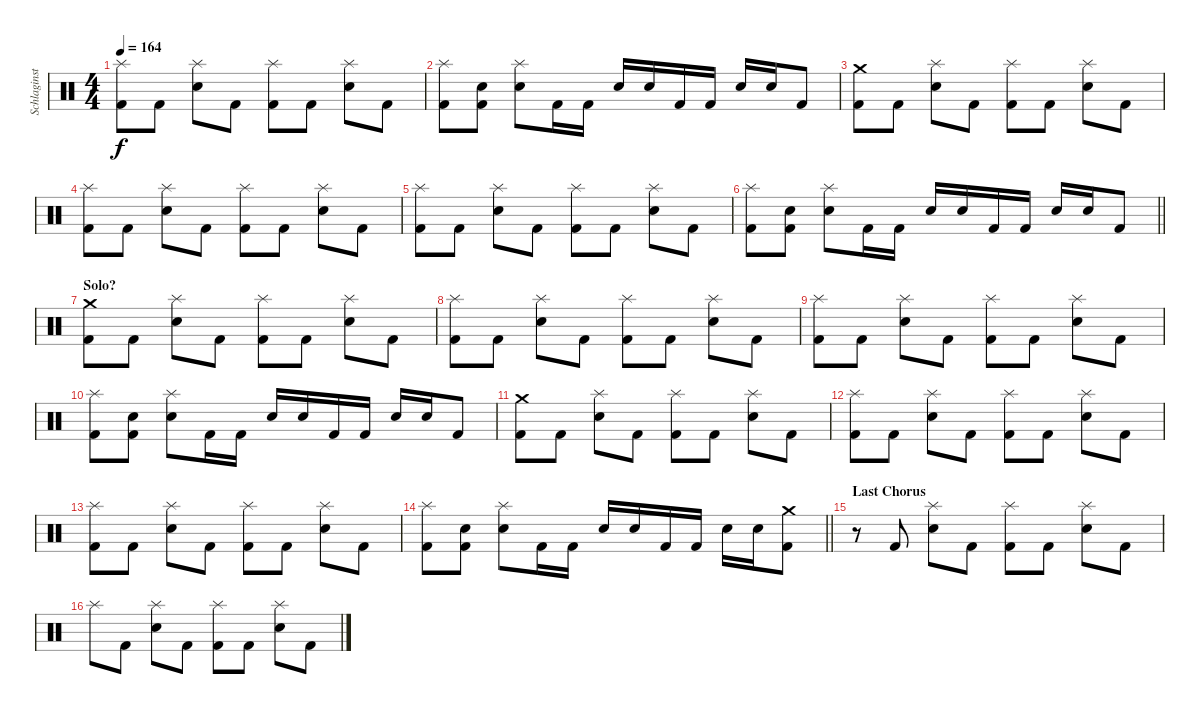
\track ("Schlaginstrumente - Auswahl" "Schlaginst") {instrument percussion}
\staff {score}
\articulation defaults
\ts (4 4)
\tempo 164
\clef neutral
\ks c
("Splash (hit)" "Kick (hit) 2").8{dy f} "Kick (hit) 2".8 ("Splash (hit)" "Electric Snare (hit)").8 "Kick (hit) 2".8 ("Splash (hit)" "Kick (hit) 2").8 "Kick (hit) 2".8 ("Splash (hit)" "Electric Snare (hit)").8 "Kick (hit) 2".8 |
("Splash (hit)" "Kick (hit) 2").8 ("Electric Snare (hit)" "Kick (hit) 2").8 ("Splash (hit)" "Electric Snare (hit)").8 "Kick (hit) 2".16 "Kick (hit) 2".16 "Electric Snare (hit)".16 "Electric Snare (hit)".16 "Kick (hit) 2".16 "Kick (hit) 2".16 "Electric Snare (hit)".16 "Electric Snare (hit)".16 "Kick (hit) 2".8 |
("Crash medium (hit)" "Kick (hit) 2").8 "Kick (hit) 2".8 ("Splash (hit)" "Electric Snare (hit)").8 "Kick (hit) 2".8 ("Splash (hit)" "Kick (hit) 2").8 "Kick (hit) 2".8 ("Splash (hit)" "Electric Snare (hit)").8 "Kick (hit) 2".8 |
("Splash (hit)" "Kick (hit) 2").8 "Kick (hit) 2".8 ("Splash (hit)" "Electric Snare (hit)").8 "Kick (hit) 2".8 ("Splash (hit)" "Kick (hit) 2").8 "Kick (hit) 2".8 ("Splash (hit)" "Electric Snare (hit)").8 "Kick (hit) 2".8 |
("Splash (hit)" "Kick (hit) 2").8 "Kick (hit) 2".8 ("Splash (hit)" "Electric Snare (hit)").8 "Kick (hit) 2".8 ("Splash (hit)" "Kick (hit) 2").8 "Kick (hit) 2".8 ("Splash (hit)" "Electric Snare (hit)").8 "Kick (hit) 2".8 |
\barLineRight lightlight
("Splash (hit)" "Kick (hit) 2").8 ("Electric Snare (hit)" "Kick (hit) 2").8 ("Splash (hit)" "Electric Snare (hit)").8 "Kick (hit) 2".16 "Kick (hit) 2".16 "Electric Snare (hit)".16 "Electric Snare (hit)".16 "Kick (hit) 2".16 "Kick (hit) 2".16 "Electric Snare (hit)".16 "Electric Snare (hit)".16 "Kick (hit) 2".8 |
\section ("" "Solo?")
("Crash medium (hit)" "Kick (hit) 2").8 "Kick (hit) 2".8 ("Splash (hit)" "Electric Snare (hit)").8 "Kick (hit) 2".8 ("Splash (hit)" "Kick (hit) 2").8 "Kick (hit) 2".8 ("Splash (hit)" "Electric Snare (hit)").8 "Kick (hit) 2".8 |
("Splash (hit)" "Kick (hit) 2").8 "Kick (hit) 2".8 ("Splash (hit)" "Electric Snare (hit)").8 "Kick (hit) 2".8 ("Splash (hit)" "Kick (hit) 2").8 "Kick (hit) 2".8 ("Splash (hit)" "Electric Snare (hit)").8 "Kick (hit) 2".8 |
("Splash (hit)" "Kick (hit) 2").8 "Kick (hit) 2".8 ("Splash (hit)" "Electric Snare (hit)").8 "Kick (hit) 2".8 ("Splash (hit)" "Kick (hit) 2").8 "Kick (hit) 2".8 ("Splash (hit)" "Electric Snare (hit)").8 "Kick (hit) 2".8 |
("Splash (hit)" "Kick (hit) 2").8 ("Electric Snare (hit)" "Kick (hit) 2").8 ("Splash (hit)" "Electric Snare (hit)").8 "Kick (hit) 2".16 "Kick (hit) 2".16 "Electric Snare (hit)".16 "Electric Snare (hit)".16 "Kick (hit) 2".16 "Kick (hit) 2".16 "Electric Snare (hit)".16 "Electric Snare (hit)".16 "Kick (hit) 2".8 |
("Crash medium (hit)" "Kick (hit) 2").8 "Kick (hit) 2".8 ("Splash (hit)" "Electric Snare (hit)").8 "Kick (hit) 2".8 ("Splash (hit)" "Kick (hit) 2").8 "Kick (hit) 2".8 ("Splash (hit)" "Electric Snare (hit)").8 "Kick (hit) 2".8 |
("Splash (hit)" "Kick (hit) 2").8 "Kick (hit) 2".8 ("Splash (hit)" "Electric Snare (hit)").8 "Kick (hit) 2".8 ("Splash (hit)" "Kick (hit) 2").8 "Kick (hit) 2".8 ("Splash (hit)" "Electric Snare (hit)").8 "Kick (hit) 2".8 |
("Splash (hit)" "Kick (hit) 2").8 "Kick (hit) 2".8 ("Splash (hit)" "Electric Snare (hit)").8 "Kick (hit) 2".8 ("Splash (hit)" "Kick (hit) 2").8 "Kick (hit) 2".8 ("Splash (hit)" "Electric Snare (hit)").8 "Kick (hit) 2".8 |
\barLineRight lightlight
("Splash (hit)" "Kick (hit) 2").8 ("Electric Snare (hit)" "Kick (hit) 2").8 ("Splash (hit)" "Electric Snare (hit)").8 "Kick (hit) 2".16 "Kick (hit) 2".16 "Electric Snare (hit)".16 "Electric Snare (hit)".16 "Kick (hit) 2".16 "Kick (hit) 2".16 "Electric Snare (hit)".16 "Electric Snare (hit)".16 ("Crash medium (hit)" "Kick (hit) 2").8 |
\section ("" "Last Chorus")
r.8 "Kick (hit) 2".8 ("Splash (hit)" "Electric Snare (hit)").8 "Kick (hit) 2".8 ("Splash (hit)" "Kick (hit) 2").8 "Kick (hit) 2".8 ("Splash (hit)" "Electric Snare (hit)").8 "Kick (hit) 2".8 |
"Splash (hit)".8 "Kick (hit) 2".8 ("Splash (hit)" "Electric Snare (hit)").8 "Kick (hit) 2".8 ("Splash (hit)" "Kick (hit) 2").8 "Kick (hit) 2".8 ("Splash (hit)" "Electric Snare (hit)").8 "Kick (hit) 2".8
